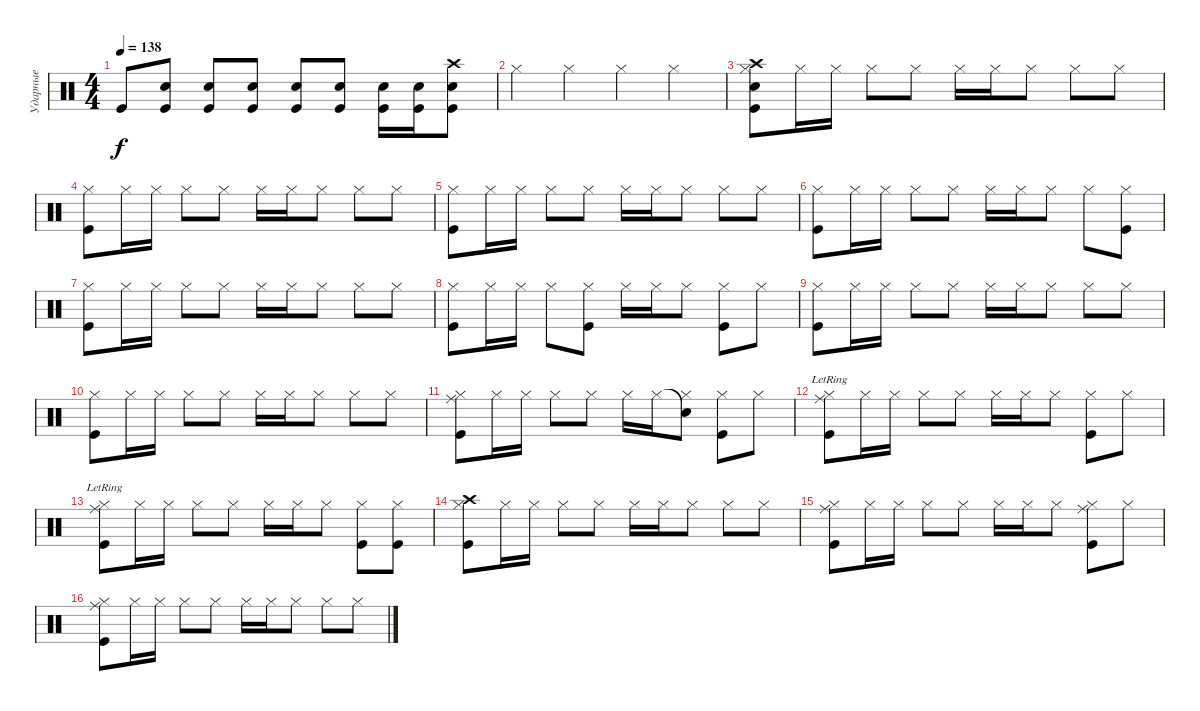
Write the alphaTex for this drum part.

\track ("Ударные" "Ударные") {instrument percussion}
\staff {score}
\articulation defaults
\ts (4 4)
\tempo 138
\clef neutral
\ks c "Kick (hit)".8{dy f}
("Electric Snare (hit)" "Kick (hit)").8 ("Electric Snare (hit)" "Kick (hit)").8 ("Electric Snare (hit)" "Kick (hit)").8 ("Electric Snare (hit)" "Kick (hit)").8 ("Electric Snare (hit)" "Kick (hit)").8 ("Electric Snare (hit)" "Kick (hit)").16 ("Electric Snare (hit)" "Kick (hit)").16 ("Crash high (hit)" "Electric Snare (hit)" "Kick (hit)").8 |
"Hi-Hat (closed)".4 "Hi-Hat (closed)".4 "Hi-Hat (closed)".4 "Hi-Hat (closed)".4 |
("Crash high (hit)" "Hi-Hat (closed)" "Electric Snare (hit)" "Kick (hit)").8 "Hi-Hat (closed)".16 "Hi-Hat (closed)".16 "Hi-Hat (closed)".8 "Hi-Hat (closed)".8 "Hi-Hat (closed)".16 "Hi-Hat (closed)".16 "Hi-Hat (closed)".8 "Hi-Hat (closed)".8 "Hi-Hat (closed)".8 |
("Hi-Hat (closed)" "Kick (hit)").8 "Hi-Hat (closed)".16 "Hi-Hat (closed)".16 "Hi-Hat (closed)".8 "Hi-Hat (closed)".8 "Hi-Hat (closed)".16 "Hi-Hat (closed)".16 "Hi-Hat (closed)".8 "Hi-Hat (closed)".8 "Hi-Hat (closed)".8 |
("Hi-Hat (closed)" "Kick (hit)").8 "Hi-Hat (closed)".16 "Hi-Hat (closed)".16 "Hi-Hat (closed)".8 "Hi-Hat (closed)".8 "Hi-Hat (closed)".16 "Hi-Hat (closed)".16 "Hi-Hat (closed)".8 "Hi-Hat (closed)".8 "Hi-Hat (closed)".8 |
("Hi-Hat (closed)" "Kick (hit)").8 "Hi-Hat (closed)".16 "Hi-Hat (closed)".16 "Hi-Hat (closed)".8 "Hi-Hat (closed)".8 "Hi-Hat (closed)".16 "Hi-Hat (closed)".16 "Hi-Hat (closed)".8 "Hi-Hat (closed)".8 ("Hi-Hat (closed)" "Kick (hit)").8 |
("Hi-Hat (closed)" "Kick (hit)").8 "Hi-Hat (closed)".16 "Hi-Hat (closed)".16 "Hi-Hat (closed)".8 "Hi-Hat (closed)".8 "Hi-Hat (closed)".16 "Hi-Hat (closed)".16 "Hi-Hat (closed)".8 "Hi-Hat (closed)".8 "Hi-Hat (closed)".8 |
("Hi-Hat (closed)" "Kick (hit)").8 "Hi-Hat (closed)".16 "Hi-Hat (closed)".16 "Hi-Hat (closed)".8 ("Hi-Hat (closed)" "Kick (hit)").8 "Hi-Hat (closed)".16 "Hi-Hat (closed)".16 "Hi-Hat (closed)".8 ("Hi-Hat (closed)" "Kick (hit)").8 "Hi-Hat (closed)".8 |
("Hi-Hat (closed)" "Kick (hit)").8 "Hi-Hat (closed)".16 "Hi-Hat (closed)".16 "Hi-Hat (closed)".8 "Hi-Hat (closed)".8 "Hi-Hat (closed)".16 "Hi-Hat (closed)".16 "Hi-Hat (closed)".8 "Hi-Hat (closed)".8 "Hi-Hat (closed)".8 |
("Hi-Hat (closed)" "Kick (hit)").8 "Hi-Hat (closed)".16 "Hi-Hat (closed)".16 "Hi-Hat (closed)".8 "Hi-Hat (closed)".8 "Hi-Hat (closed)".16 "Hi-Hat (closed)".16 "Hi-Hat (closed)".8 "Hi-Hat (closed)".8 "Hi-Hat (closed)".8 |
("Ride (middle)" "Hi-Hat (closed)" "Kick (hit)").8 "Hi-Hat (closed)".16 "Hi-Hat (closed)".16 "Hi-Hat (closed)".8 "Hi-Hat (closed)".8 "Hi-Hat (closed)".16 "Hi-Hat (closed)".16 ("Snare (hit)"{t} "Hi-Hat (closed)").8 ("Hi-Hat (closed)" "Kick (hit)").8 "Hi-Hat (closed)".8 |
("Ride (middle)"{lr} "Hi-Hat (closed)" "Kick (hit)").8 "Hi-Hat (closed)".16 "Hi-Hat (closed)".16 "Hi-Hat (closed)".8 "Hi-Hat (closed)".8 "Hi-Hat (closed)".16 "Hi-Hat (closed)".16 "Hi-Hat (closed)".8 ("Hi-Hat (closed)" "Kick (hit)").8 "Hi-Hat (closed)".8 |
("Ride (middle)"{lr} "Hi-Hat (closed)" "Kick (hit)").8 "Hi-Hat (closed)".16 "Hi-Hat (closed)".16 "Hi-Hat (closed)".8 "Hi-Hat (closed)".8 "Hi-Hat (closed)".16 "Hi-Hat (closed)".16 "Hi-Hat (closed)".8 ("Hi-Hat (closed)" "Kick (hit)").8 ("Hi-Hat (closed)" "Kick (hit)").8 |
("Crash high (hit)" "Hi-Hat (closed)" "Kick (hit)").8 "Hi-Hat (closed)".16 "Hi-Hat (closed)".16 "Hi-Hat (closed)".8 "Hi-Hat (closed)".8 "Hi-Hat (closed)".16 "Hi-Hat (closed)".16 "Hi-Hat (closed)".8 "Hi-Hat (closed)".8 "Hi-Hat (closed)".8 |
("Ride (middle)" "Hi-Hat (closed)" "Kick (hit)").8 "Hi-Hat (closed)".16 "Hi-Hat (closed)".16 "Hi-Hat (closed)".8 "Hi-Hat (closed)".8 "Hi-Hat (closed)".16 "Hi-Hat (closed)".16 "Hi-Hat (closed)".8 ("Ride (middle)" "Hi-Hat (closed)" "Kick (hit)").8 "Hi-Hat (closed)".8 |
("Ride (middle)" "Hi-Hat (closed)" "Kick (hit)").8 "Hi-Hat (closed)".16 "Hi-Hat (closed)".16 "Hi-Hat (closed)".8 "Hi-Hat (closed)".8 "Hi-Hat (closed)".16 "Hi-Hat (closed)".16 "Hi-Hat (closed)".8 "Hi-Hat (closed)".8 "Hi-Hat (closed)".8
